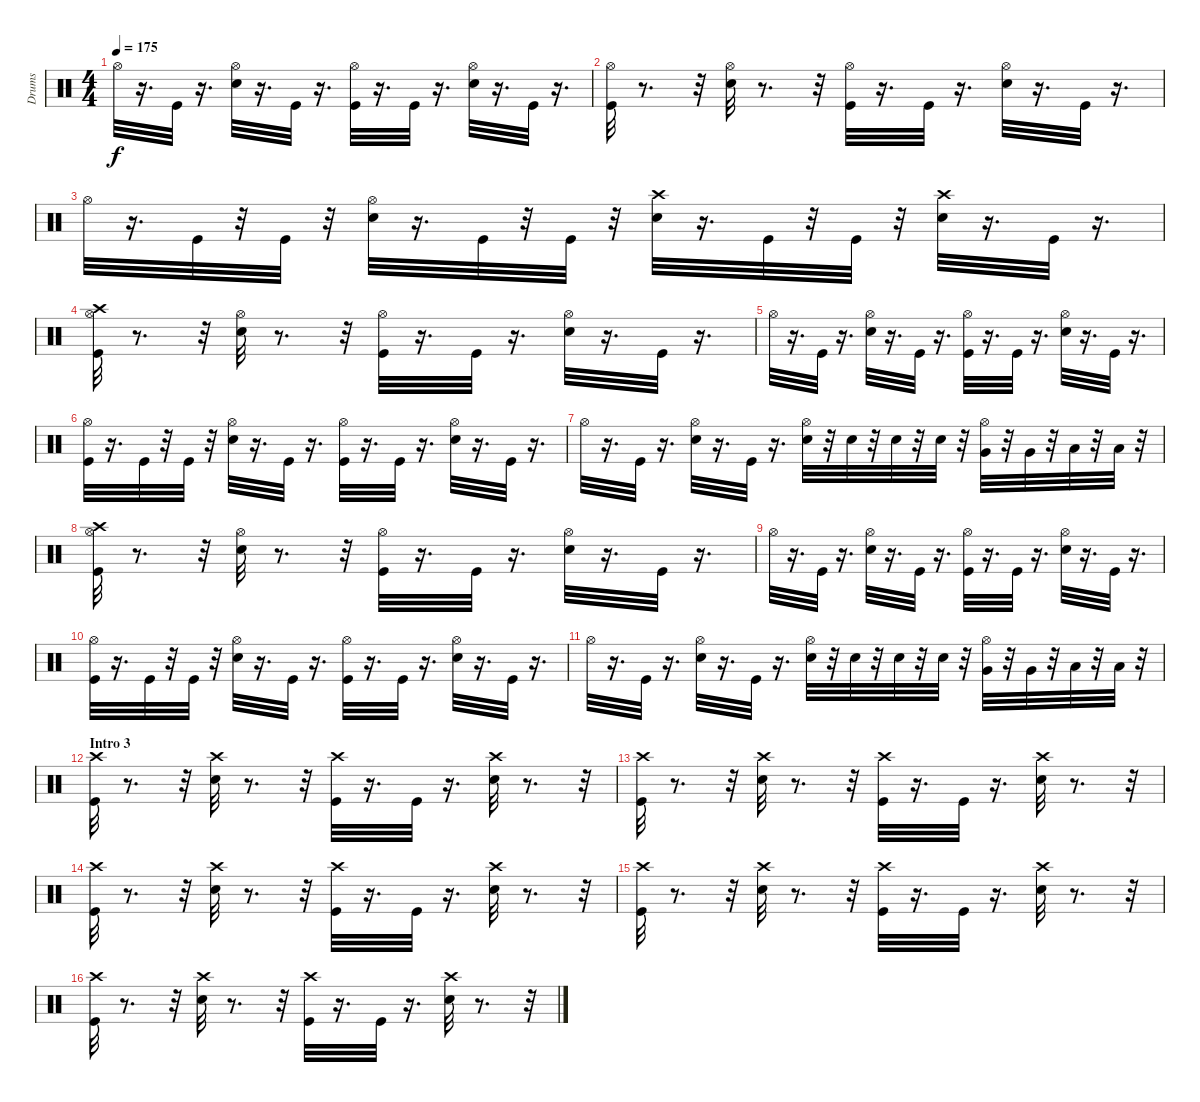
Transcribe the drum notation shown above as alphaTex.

\track ("Drums" "Drums") {instrument percussion}
\staff {score}
\articulation defaults
\ts (4 4)
\tempo 175
\clef neutral
\ks c "Hi-Hat (open)".32{dy f}
r.16{d} "Kick (hit)".32 r.16{d} ("Hi-Hat (open)" "Electric Snare (hit)").32 r.16{d} "Kick (hit)".32 r.16{d} ("Hi-Hat (open)" "Kick (hit)").32 r.16{d} "Kick (hit)".32 r.16{d} ("Hi-Hat (open)" "Electric Snare (hit)").32 r.16{d} "Kick (hit)".32 r.16{d} |
("Hi-Hat (open)" "Kick (hit)").32 r.8{d} r.32 ("Hi-Hat (open)" "Electric Snare (hit)").32 r.8{d} r.32 ("Hi-Hat (open)" "Kick (hit)").32 r.16{d} "Kick (hit)".32 r.16{d} ("Hi-Hat (open)" "Electric Snare (hit)").32 r.16{d} "Kick (hit)".32 r.16{d} |
"Hi-Hat (open)".32 r.16{d} "Kick (hit)".32 r.32 "Kick (hit)".32 r.32 ("Hi-Hat (open)" "Electric Snare (hit)").32 r.16{d} "Kick (hit)".32 r.32 "Kick (hit)".32 r.32 ("Crash high (hit)" "Electric Snare (hit)").32 r.16{d} "Kick (hit)".32 r.32 "Kick (hit)".32 r.32 ("Crash high (hit)" "Electric Snare (hit)").32 r.16{d} "Kick (hit)".32 r.16{d} |
("Crash high (hit)" "Hi-Hat (open)" "Kick (hit)").32 r.8{d} r.32 ("Hi-Hat (open)" "Electric Snare (hit)").32 r.8{d} r.32 ("Hi-Hat (open)" "Kick (hit)").32 r.16{d} "Kick (hit)".32 r.16{d} ("Hi-Hat (open)" "Electric Snare (hit)").32 r.16{d} "Kick (hit)".32 r.16{d} |
"Hi-Hat (open)".32 r.16{d} "Kick (hit)".32 r.16{d} ("Hi-Hat (open)" "Electric Snare (hit)").32 r.16{d} "Kick (hit)".32 r.16{d} ("Hi-Hat (open)" "Kick (hit)").32 r.16{d} "Kick (hit)".32 r.16{d} ("Hi-Hat (open)" "Electric Snare (hit)").32 r.16{d} "Kick (hit)".32 r.16{d} |
("Hi-Hat (open)" "Kick (hit)").32 r.16{d} "Kick (hit)".32 r.32 "Kick (hit)".32 r.32 ("Hi-Hat (open)" "Electric Snare (hit)").32 r.16{d} "Kick (hit)".32 r.16{d} ("Hi-Hat (open)" "Kick (hit)").32 r.16{d} "Kick (hit)".32 r.16{d} ("Hi-Hat (open)" "Electric Snare (hit)").32 r.16{d} "Kick (hit)".32 r.16{d} |
"Hi-Hat (open)".32 r.16{d} "Kick (hit)".32 r.16{d} ("Hi-Hat (open)" "Electric Snare (hit)").32 r.16{d} "Kick (hit)".32 r.16{d} ("Electric Snare (hit)" "Hi-Hat (open)").32 r.32 "Electric Snare (hit)".32 r.32 "Electric Snare (hit)".32 r.32 "Electric Snare (hit)".32 r.32 ("Hi-Hat (open)" "Very Low Tom (hit)").32 r.32 "Very Low Tom (hit)".32 r.32 "Low Floor Tom (hit)".32 r.32 "Low Floor Tom (hit)".32 r.32 |
("Crash high (hit)" "Hi-Hat (open)" "Kick (hit)").32 r.8{d} r.32 ("Hi-Hat (open)" "Electric Snare (hit)").32 r.8{d} r.32 ("Hi-Hat (open)" "Kick (hit)").32 r.16{d} "Kick (hit)".32 r.16{d} ("Hi-Hat (open)" "Electric Snare (hit)").32 r.16{d} "Kick (hit)".32 r.16{d} |
"Hi-Hat (open)".32 r.16{d} "Kick (hit)".32 r.16{d} ("Hi-Hat (open)" "Electric Snare (hit)").32 r.16{d} "Kick (hit)".32 r.16{d} ("Hi-Hat (open)" "Kick (hit)").32 r.16{d} "Kick (hit)".32 r.16{d} ("Hi-Hat (open)" "Electric Snare (hit)").32 r.16{d} "Kick (hit)".32 r.16{d} |
("Hi-Hat (open)" "Kick (hit)").32 r.16{d} "Kick (hit)".32 r.32 "Kick (hit)".32 r.32 ("Hi-Hat (open)" "Electric Snare (hit)").32 r.16{d} "Kick (hit)".32 r.16{d} ("Hi-Hat (open)" "Kick (hit)").32 r.16{d} "Kick (hit)".32 r.16{d} ("Hi-Hat (open)" "Electric Snare (hit)").32 r.16{d} "Kick (hit)".32 r.16{d} |
"Hi-Hat (open)".32 r.16{d} "Kick (hit)".32 r.16{d} ("Hi-Hat (open)" "Electric Snare (hit)").32 r.16{d} "Kick (hit)".32 r.16{d} ("Electric Snare (hit)" "Hi-Hat (open)").32 r.32 "Electric Snare (hit)".32 r.32 "Electric Snare (hit)".32 r.32 "Electric Snare (hit)".32 r.32 ("Hi-Hat (open)" "Very Low Tom (hit)").32 r.32 "Very Low Tom (hit)".32 r.32 "Low Floor Tom (hit)".32 r.32 "Low Floor Tom (hit)".32 r.32 |
\section ("" "Intro 3")
("Crash high (hit)" "Kick (hit)").32 r.8{d} r.32 ("Crash high (hit)" "Electric Snare (hit)").32 r.8{d} r.32 ("Kick (hit)" "Crash high (hit)").32 r.16{d} "Kick (hit)".32 r.16{d} ("Crash high (hit)" "Electric Snare (hit)").32 r.8{d} r.32 |
("Crash high (hit)" "Kick (hit)").32 r.8{d} r.32 ("Crash high (hit)" "Electric Snare (hit)").32 r.8{d} r.32 ("Crash high (hit)" "Kick (hit)").32 r.16{d} "Kick (hit)".32 r.16{d} ("Crash high (hit)" "Electric Snare (hit)").32 r.8{d} r.32 |
("Crash high (hit)" "Kick (hit)").32 r.8{d} r.32 ("Crash high (hit)" "Electric Snare (hit)").32 r.8{d} r.32 ("Crash high (hit)" "Kick (hit)").32 r.16{d} "Kick (hit)".32 r.16{d} ("Crash high (hit)" "Electric Snare (hit)").32 r.8{d} r.32 |
("Crash high (hit)" "Kick (hit)").32 r.8{d} r.32 ("Crash high (hit)" "Electric Snare (hit)").32 r.8{d} r.32 ("Crash high (hit)" "Kick (hit)").32 r.16{d} "Kick (hit)".32 r.16{d} ("Crash high (hit)" "Electric Snare (hit)").32 r.8{d} r.32 |
("Crash high (hit)" "Kick (hit)").32 r.8{d} r.32 ("Crash high (hit)" "Electric Snare (hit)").32 r.8{d} r.32 ("Crash high (hit)" "Kick (hit)").32 r.16{d} "Kick (hit)".32 r.16{d} ("Crash high (hit)" "Electric Snare (hit)").32 r.8{d} r.32
